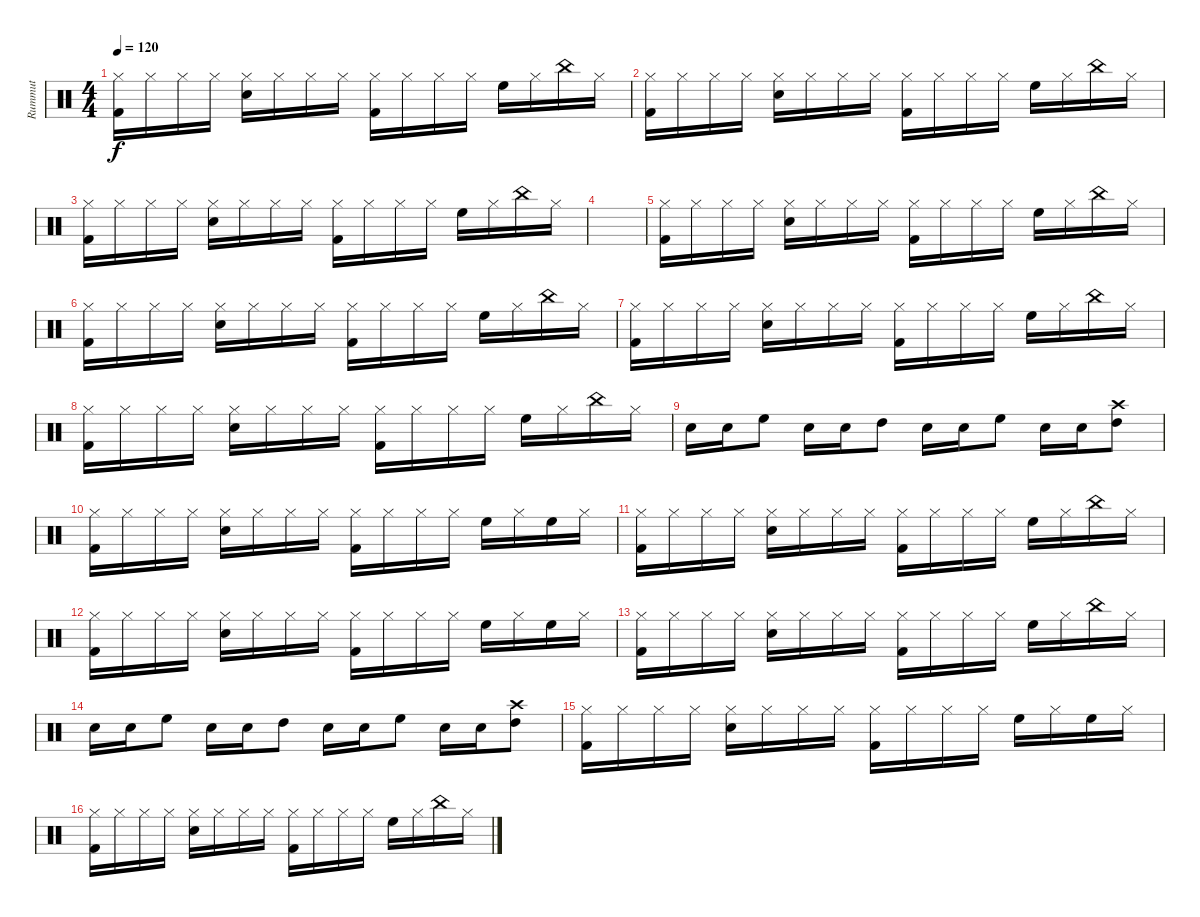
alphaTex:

\track ("Rummut" "Rummut") {instrument percussion}
\staff {score}
\articulation defaults
\ts (4 4)
\tempo 120
\clef neutral
\ks c
("Hi-Hat (closed)" "Kick (hit) 2").16{dy f} "Hi-Hat (closed)".16 "Hi-Hat (closed)".16 "Hi-Hat (closed)".16 ("Hi-Hat (closed)" "Snare (hit) 2").16 "Hi-Hat (closed)".16 "Hi-Hat (closed)".16 "Hi-Hat (closed)".16 ("Hi-Hat (closed)" "Kick (hit) 2").16 "Hi-Hat (closed)".16 "Hi-Hat (closed)".16 "Hi-Hat (closed)".16 "High Floor Tom (hit)".16 "Hi-Hat (closed)".16 "China (hit)".16 "Hi-Hat (closed)".16 |
("Hi-Hat (closed)" "Kick (hit) 2").16 "Hi-Hat (closed)".16 "Hi-Hat (closed)".16 "Hi-Hat (closed)".16 ("Hi-Hat (closed)" "Snare (hit) 2").16 "Hi-Hat (closed)".16 "Hi-Hat (closed)".16 "Hi-Hat (closed)".16 ("Hi-Hat (closed)" "Kick (hit) 2").16 "Hi-Hat (closed)".16 "Hi-Hat (closed)".16 "Hi-Hat (closed)".16 "High Floor Tom (hit)".16 "Hi-Hat (closed)".16 "China (hit)".16 "Hi-Hat (closed)".16 |
("Hi-Hat (closed)" "Kick (hit) 2").16 "Hi-Hat (closed)".16 "Hi-Hat (closed)".16 "Hi-Hat (closed)".16 ("Hi-Hat (closed)" "Snare (hit) 2").16 "Hi-Hat (closed)".16 "Hi-Hat (closed)".16 "Hi-Hat (closed)".16 ("Hi-Hat (closed)" "Kick (hit) 2").16 "Hi-Hat (closed)".16 "Hi-Hat (closed)".16 "Hi-Hat (closed)".16 "High Floor Tom (hit)".16 "Hi-Hat (closed)".16 "China (hit)".16 "Hi-Hat (closed)".16 |
|
("Hi-Hat (closed)" "Kick (hit) 2").16 "Hi-Hat (closed)".16 "Hi-Hat (closed)".16 "Hi-Hat (closed)".16 ("Hi-Hat (closed)" "Snare (hit) 2").16 "Hi-Hat (closed)".16 "Hi-Hat (closed)".16 "Hi-Hat (closed)".16 ("Hi-Hat (closed)" "Kick (hit) 2").16 "Hi-Hat (closed)".16 "Hi-Hat (closed)".16 "Hi-Hat (closed)".16 "High Floor Tom (hit)".16 "Hi-Hat (closed)".16 "China (hit)".16 "Hi-Hat (closed)".16 |
("Hi-Hat (closed)" "Kick (hit) 2").16 "Hi-Hat (closed)".16 "Hi-Hat (closed)".16 "Hi-Hat (closed)".16 ("Hi-Hat (closed)" "Snare (hit) 2").16 "Hi-Hat (closed)".16 "Hi-Hat (closed)".16 "Hi-Hat (closed)".16 ("Hi-Hat (closed)" "Kick (hit) 2").16 "Hi-Hat (closed)".16 "Hi-Hat (closed)".16 "Hi-Hat (closed)".16 "High Floor Tom (hit)".16 "Hi-Hat (closed)".16 "China (hit)".16 "Hi-Hat (closed)".16 |
("Hi-Hat (closed)" "Kick (hit) 2").16 "Hi-Hat (closed)".16 "Hi-Hat (closed)".16 "Hi-Hat (closed)".16 ("Hi-Hat (closed)" "Snare (hit) 2").16 "Hi-Hat (closed)".16 "Hi-Hat (closed)".16 "Hi-Hat (closed)".16 ("Hi-Hat (closed)" "Kick (hit) 2").16 "Hi-Hat (closed)".16 "Hi-Hat (closed)".16 "Hi-Hat (closed)".16 "High Floor Tom (hit)".16 "Hi-Hat (closed)".16 "China (hit)".16 "Hi-Hat (closed)".16 |
("Hi-Hat (closed)" "Kick (hit) 2").16 "Hi-Hat (closed)".16 "Hi-Hat (closed)".16 "Hi-Hat (closed)".16 ("Hi-Hat (closed)" "Snare (hit) 2").16 "Hi-Hat (closed)".16 "Hi-Hat (closed)".16 "Hi-Hat (closed)".16 ("Hi-Hat (closed)" "Kick (hit) 2").16 "Hi-Hat (closed)".16 "Hi-Hat (closed)".16 "Hi-Hat (closed)".16 "High Floor Tom (hit)".16 "Hi-Hat (closed)".16 "China (hit)".16 "Hi-Hat (closed)".16 |
"Snare (hit) 2".16 "Snare (hit) 2".16 "High Floor Tom (hit)".8 "Snare (hit) 2".16 "Snare (hit) 2".16 "High Tom (hit)".8 "Snare (hit) 2".16 "Snare (hit) 2".16 "High Floor Tom (hit)".8 "Snare (hit) 2".16 "Snare (hit) 2".16 ("Crash high (hit)" "High Tom (hit)").8 |
("Hi-Hat (closed)" "Kick (hit) 2").16 "Hi-Hat (closed)".16 "Hi-Hat (closed)".16 "Hi-Hat (closed)".16 ("Hi-Hat (closed)" "Snare (hit) 2").16 "Hi-Hat (closed)".16 "Hi-Hat (closed)".16 "Hi-Hat (closed)".16 ("Hi-Hat (closed)" "Kick (hit) 2").16 "Hi-Hat (closed)".16 "Hi-Hat (closed)".16 "Hi-Hat (closed)".16 "High Floor Tom (hit)".16 "Hi-Hat (closed)".16 "High Floor Tom (hit)".16 "Hi-Hat (closed)".16 |
("Hi-Hat (closed)" "Kick (hit) 2").16 "Hi-Hat (closed)".16 "Hi-Hat (closed)".16 "Hi-Hat (closed)".16 ("Hi-Hat (closed)" "Snare (hit) 2").16 "Hi-Hat (closed)".16 "Hi-Hat (closed)".16 "Hi-Hat (closed)".16 ("Hi-Hat (closed)" "Kick (hit) 2").16 "Hi-Hat (closed)".16 "Hi-Hat (closed)".16 "Hi-Hat (closed)".16 "High Floor Tom (hit)".16 "Hi-Hat (closed)".16 "China (hit)".16 "Hi-Hat (closed)".16 |
("Hi-Hat (closed)" "Kick (hit) 2").16 "Hi-Hat (closed)".16 "Hi-Hat (closed)".16 "Hi-Hat (closed)".16 ("Hi-Hat (closed)" "Snare (hit) 2").16 "Hi-Hat (closed)".16 "Hi-Hat (closed)".16 "Hi-Hat (closed)".16 ("Hi-Hat (closed)" "Kick (hit) 2").16 "Hi-Hat (closed)".16 "Hi-Hat (closed)".16 "Hi-Hat (closed)".16 "High Floor Tom (hit)".16 "Hi-Hat (closed)".16 "High Floor Tom (hit)".16 "Hi-Hat (closed)".16 |
("Hi-Hat (closed)" "Kick (hit) 2").16 "Hi-Hat (closed)".16 "Hi-Hat (closed)".16 "Hi-Hat (closed)".16 ("Hi-Hat (closed)" "Snare (hit) 2").16 "Hi-Hat (closed)".16 "Hi-Hat (closed)".16 "Hi-Hat (closed)".16 ("Hi-Hat (closed)" "Kick (hit) 2").16 "Hi-Hat (closed)".16 "Hi-Hat (closed)".16 "Hi-Hat (closed)".16 "High Floor Tom (hit)".16 "Hi-Hat (closed)".16 "China (hit)".16 "Hi-Hat (closed)".16 |
"Snare (hit) 2".16 "Snare (hit) 2".16 "High Floor Tom (hit)".8 "Snare (hit) 2".16 "Snare (hit) 2".16 "High Tom (hit)".8 "Snare (hit) 2".16 "Snare (hit) 2".16 "High Floor Tom (hit)".8 "Snare (hit) 2".16 "Snare (hit) 2".16 ("Crash high (hit)" "High Tom (hit)").8 |
("Hi-Hat (closed)" "Kick (hit) 2").16 "Hi-Hat (closed)".16 "Hi-Hat (closed)".16 "Hi-Hat (closed)".16 ("Hi-Hat (closed)" "Snare (hit) 2").16 "Hi-Hat (closed)".16 "Hi-Hat (closed)".16 "Hi-Hat (closed)".16 ("Hi-Hat (closed)" "Kick (hit) 2").16 "Hi-Hat (closed)".16 "Hi-Hat (closed)".16 "Hi-Hat (closed)".16 "High Floor Tom (hit)".16 "Hi-Hat (closed)".16 "High Floor Tom (hit)".16 "Hi-Hat (closed)".16 |
("Hi-Hat (closed)" "Kick (hit) 2").16 "Hi-Hat (closed)".16 "Hi-Hat (closed)".16 "Hi-Hat (closed)".16 ("Hi-Hat (closed)" "Snare (hit) 2").16 "Hi-Hat (closed)".16 "Hi-Hat (closed)".16 "Hi-Hat (closed)".16 ("Hi-Hat (closed)" "Kick (hit) 2").16 "Hi-Hat (closed)".16 "Hi-Hat (closed)".16 "Hi-Hat (closed)".16 "High Floor Tom (hit)".16 "Hi-Hat (closed)".16 "China (hit)".16 "Hi-Hat (closed)".16
